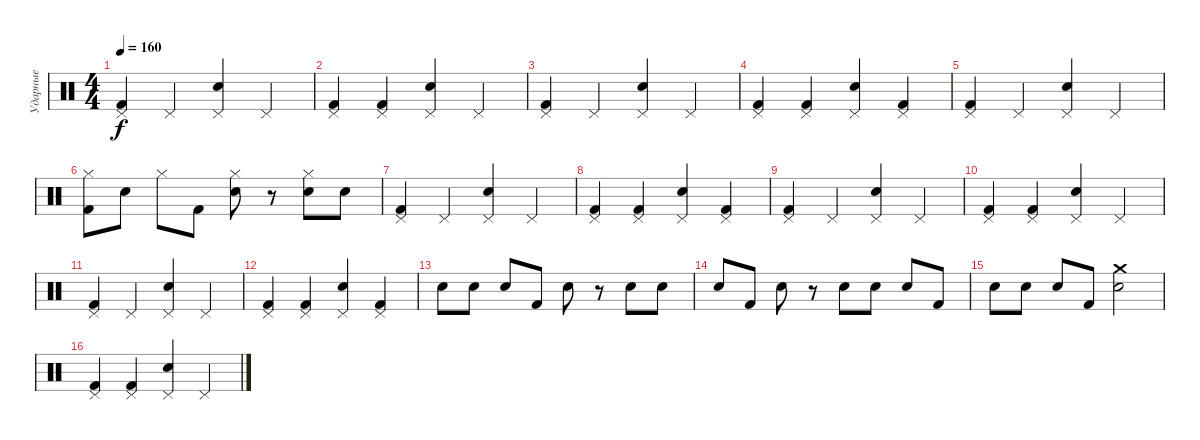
\track ("Ударные" "Ударные") {instrument percussion}
\staff {score}
\articulation defaults
\ts (4 4)
\tempo 160
\clef neutral
\ks c
("Pedal Hi-Hat (hit)" "Kick (hit) 2").4{dy f} "Pedal Hi-Hat (hit)".4 ("Electric Snare (hit)" "Pedal Hi-Hat (hit)").4 "Pedal Hi-Hat (hit)".4 |
("Pedal Hi-Hat (hit)" "Kick (hit) 2").4 ("Pedal Hi-Hat (hit)" "Kick (hit) 2").4 ("Electric Snare (hit)" "Pedal Hi-Hat (hit)").4 "Pedal Hi-Hat (hit)".4 |
("Pedal Hi-Hat (hit)" "Kick (hit) 2").4 "Pedal Hi-Hat (hit)".4 ("Electric Snare (hit)" "Pedal Hi-Hat (hit)").4 "Pedal Hi-Hat (hit)".4 |
("Pedal Hi-Hat (hit)" "Kick (hit) 2").4 ("Pedal Hi-Hat (hit)" "Kick (hit) 2").4 ("Electric Snare (hit)" "Pedal Hi-Hat (hit)").4 ("Pedal Hi-Hat (hit)" "Kick (hit) 2").4 |
("Pedal Hi-Hat (hit)" "Kick (hit) 2").4 "Pedal Hi-Hat (hit)".4 ("Electric Snare (hit)" "Pedal Hi-Hat (hit)").4 "Pedal Hi-Hat (hit)".4 |
("Hi-Hat (closed)" "Kick (hit) 2").8 "Electric Snare (hit)".8 "Hi-Hat (closed)".8 "Kick (hit) 2".8 ("Electric Snare (hit)" "Hi-Hat (closed)").8 r.8 ("Electric Snare (hit)" "Hi-Hat (closed)").8 "Electric Snare (hit)".8 |
("Pedal Hi-Hat (hit)" "Kick (hit) 2").4 "Pedal Hi-Hat (hit)".4 ("Electric Snare (hit)" "Pedal Hi-Hat (hit)").4 "Pedal Hi-Hat (hit)".4 |
("Pedal Hi-Hat (hit)" "Kick (hit) 2").4 ("Pedal Hi-Hat (hit)" "Kick (hit) 2").4 ("Electric Snare (hit)" "Pedal Hi-Hat (hit)").4 ("Pedal Hi-Hat (hit)" "Kick (hit) 2").4 |
("Pedal Hi-Hat (hit)" "Kick (hit) 2").4 "Pedal Hi-Hat (hit)".4 ("Electric Snare (hit)" "Pedal Hi-Hat (hit)").4 "Pedal Hi-Hat (hit)".4 |
("Pedal Hi-Hat (hit)" "Kick (hit) 2").4 ("Pedal Hi-Hat (hit)" "Kick (hit) 2").4 ("Electric Snare (hit)" "Pedal Hi-Hat (hit)").4 "Pedal Hi-Hat (hit)".4 |
("Pedal Hi-Hat (hit)" "Kick (hit) 2").4 "Pedal Hi-Hat (hit)".4 ("Electric Snare (hit)" "Pedal Hi-Hat (hit)").4 "Pedal Hi-Hat (hit)".4 |
("Pedal Hi-Hat (hit)" "Kick (hit) 2").4 ("Pedal Hi-Hat (hit)" "Kick (hit) 2").4 ("Electric Snare (hit)" "Pedal Hi-Hat (hit)").4 ("Pedal Hi-Hat (hit)" "Kick (hit) 2").4 |
"Electric Snare (hit)".8 "Electric Snare (hit)".8 "Electric Snare (hit)".8 "Kick (hit) 2".8 "Electric Snare (hit)".8 r.8 "Electric Snare (hit)".8 "Electric Snare (hit)".8 |
"Electric Snare (hit)".8 "Kick (hit) 2".8 "Electric Snare (hit)".8 r.8 "Electric Snare (hit)".8 "Electric Snare (hit)".8 "Electric Snare (hit)".8 "Kick (hit) 2".8 |
"Electric Snare (hit)".8 "Electric Snare (hit)".8 "Electric Snare (hit)".8 "Kick (hit) 2".8 ("Electric Snare (hit)" "Crash medium (hit)").2 |
("Pedal Hi-Hat (hit)" "Kick (hit) 2").4 ("Pedal Hi-Hat (hit)" "Kick (hit) 2").4 ("Electric Snare (hit)" "Pedal Hi-Hat (hit)").4 "Pedal Hi-Hat (hit)".4
